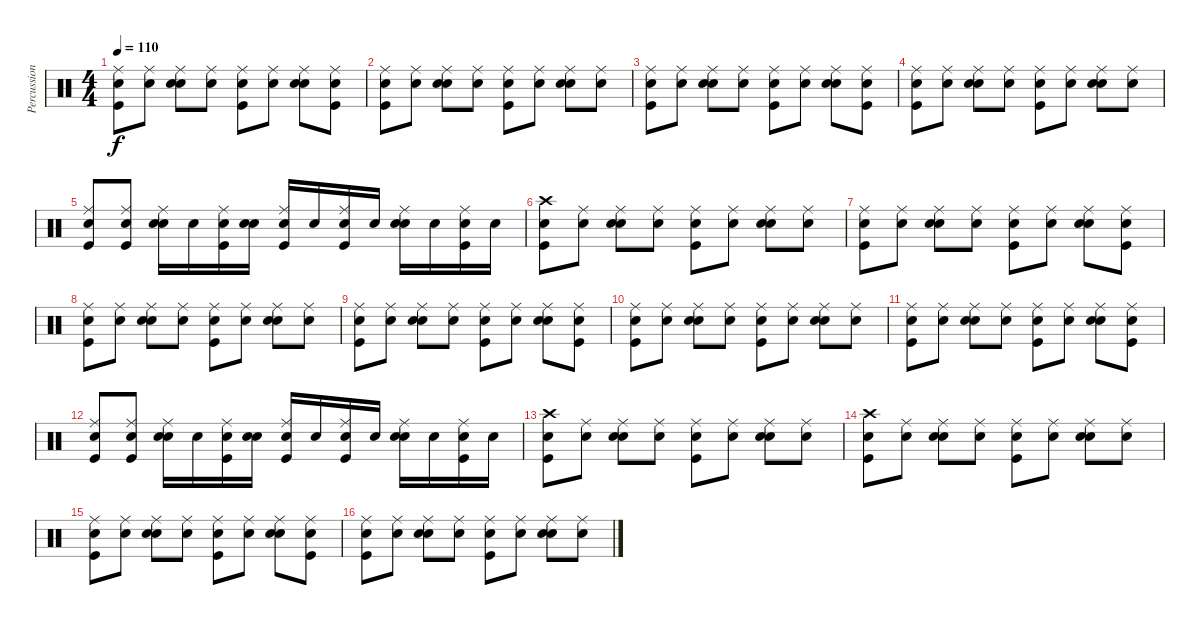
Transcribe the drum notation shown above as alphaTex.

\track ("Percussion" "Percussion") {instrument percussion}
\staff {score}
\articulation defaults
\ts (4 4)
\tempo 110
\clef neutral
\ks c
("Snare (hit)" "Ride (middle)" "Kick (hit)").8{dy f} ("Snare (hit)" "Ride (middle)").8 ("Snare (hit)" "Ride (middle)" "Snare (hit) 2").8 ("Snare (hit)" "Ride (middle)").8 ("Snare (hit)" "Ride (middle)" "Kick (hit)").8 ("Snare (hit)" "Ride (middle)").8 ("Snare (hit)" "Ride (middle)" "Snare (hit) 2").8 ("Snare (hit)" "Ride (middle)" "Kick (hit)").8 |
("Snare (hit)" "Ride (middle)" "Kick (hit)").8 ("Snare (hit)" "Ride (middle)").8 ("Snare (hit)" "Ride (middle)" "Snare (hit) 2").8 ("Snare (hit)" "Ride (middle)").8 ("Snare (hit)" "Ride (middle)" "Kick (hit)").8 ("Snare (hit)" "Ride (middle)").8 ("Snare (hit)" "Ride (middle)" "Snare (hit) 2").8 ("Snare (hit)" "Ride (middle)").8 |
("Snare (hit)" "Ride (middle)" "Kick (hit)").8 ("Snare (hit)" "Ride (middle)").8 ("Snare (hit)" "Ride (middle)" "Snare (hit) 2").8 ("Snare (hit)" "Ride (middle)").8 ("Snare (hit)" "Ride (middle)" "Kick (hit)").8 ("Snare (hit)" "Ride (middle)").8 ("Snare (hit)" "Ride (middle)" "Snare (hit) 2").8 ("Snare (hit)" "Ride (middle)" "Kick (hit)").8 |
("Snare (hit)" "Ride (middle)" "Kick (hit)").8 ("Snare (hit)" "Ride (middle)").8 ("Snare (hit)" "Ride (middle)" "Snare (hit) 2").8 ("Snare (hit)" "Ride (middle)").8 ("Snare (hit)" "Ride (middle)" "Kick (hit)").8 ("Snare (hit)" "Ride (middle)").8 ("Snare (hit)" "Ride (middle)" "Snare (hit) 2").8 ("Snare (hit)" "Ride (middle)").8 |
("Snare (hit)" "Ride (middle)" "Kick (hit)").8 ("Snare (hit)" "Ride (middle)" "Kick (hit)").8 ("Snare (hit)" "Ride (middle)" "Snare (hit) 2").16 "Snare (hit)".16 ("Snare (hit)" "Ride (middle)" "Kick (hit)").16 ("Snare (hit)" "Snare (hit) 2").16 ("Snare (hit)" "Ride (middle)" "Kick (hit)").16 "Snare (hit)".16 ("Snare (hit)" "Ride (middle)" "Kick (hit)").16 "Snare (hit)".16 ("Snare (hit)" "Ride (middle)" "Snare (hit) 2").16 "Snare (hit)".16 ("Snare (hit)" "Ride (middle)" "Kick (hit)").16 "Snare (hit)".16 |
("Snare (hit)" "Crash high (hit)" "Kick (hit)").8 ("Snare (hit)" "Ride (middle)").8 ("Snare (hit)" "Ride (middle)" "Snare (hit) 2").8 ("Snare (hit)" "Ride (middle)").8 ("Snare (hit)" "Ride (middle)" "Kick (hit)").8 ("Snare (hit)" "Ride (middle)").8 ("Snare (hit)" "Ride (middle)" "Snare (hit) 2").8 ("Snare (hit)" "Ride (middle)").8 |
("Snare (hit)" "Ride (middle)" "Kick (hit)").8 ("Snare (hit)" "Ride (middle)").8 ("Snare (hit)" "Ride (middle)" "Snare (hit) 2").8 ("Snare (hit)" "Ride (middle)").8 ("Snare (hit)" "Ride (middle)" "Kick (hit)").8 ("Snare (hit)" "Ride (middle)").8 ("Snare (hit)" "Ride (middle)" "Snare (hit) 2").8 ("Snare (hit)" "Ride (middle)" "Kick (hit)").8 |
("Snare (hit)" "Ride (middle)" "Kick (hit)").8 ("Snare (hit)" "Ride (middle)").8 ("Snare (hit)" "Ride (middle)" "Snare (hit) 2").8 ("Snare (hit)" "Ride (middle)").8 ("Snare (hit)" "Ride (middle)" "Kick (hit)").8 ("Snare (hit)" "Ride (middle)").8 ("Snare (hit)" "Ride (middle)" "Snare (hit) 2").8 ("Snare (hit)" "Ride (middle)").8 |
("Snare (hit)" "Ride (middle)" "Kick (hit)").8 ("Snare (hit)" "Ride (middle)").8 ("Snare (hit)" "Ride (middle)" "Snare (hit) 2").8 ("Snare (hit)" "Ride (middle)").8 ("Snare (hit)" "Ride (middle)" "Kick (hit)").8 ("Snare (hit)" "Ride (middle)").8 ("Snare (hit)" "Ride (middle)" "Snare (hit) 2").8 ("Snare (hit)" "Ride (middle)" "Kick (hit)").8 |
("Snare (hit)" "Ride (middle)" "Kick (hit)").8 ("Snare (hit)" "Ride (middle)").8 ("Snare (hit)" "Ride (middle)" "Snare (hit) 2").8 ("Snare (hit)" "Ride (middle)").8 ("Snare (hit)" "Ride (middle)" "Kick (hit)").8 ("Snare (hit)" "Ride (middle)").8 ("Snare (hit)" "Ride (middle)" "Snare (hit) 2").8 ("Snare (hit)" "Ride (middle)").8 |
("Snare (hit)" "Ride (middle)" "Kick (hit)").8 ("Snare (hit)" "Ride (middle)").8 ("Snare (hit)" "Ride (middle)" "Snare (hit) 2").8 ("Snare (hit)" "Ride (middle)").8 ("Snare (hit)" "Ride (middle)" "Kick (hit)").8 ("Snare (hit)" "Ride (middle)").8 ("Snare (hit)" "Ride (middle)" "Snare (hit) 2").8 ("Snare (hit)" "Ride (middle)" "Kick (hit)").8 |
("Snare (hit)" "Ride (middle)" "Kick (hit)").8 ("Snare (hit)" "Ride (middle)" "Kick (hit)").8 ("Snare (hit)" "Ride (middle)" "Snare (hit) 2").16 "Snare (hit)".16 ("Snare (hit)" "Ride (middle)" "Kick (hit)").16 ("Snare (hit)" "Snare (hit) 2").16 ("Snare (hit)" "Ride (middle)" "Kick (hit)").16 "Snare (hit)".16 ("Snare (hit)" "Ride (middle)" "Kick (hit)").16 "Snare (hit)".16 ("Snare (hit)" "Ride (middle)" "Snare (hit) 2").16 "Snare (hit)".16 ("Snare (hit)" "Ride (middle)" "Kick (hit)").16 "Snare (hit)".16 |
("Snare (hit)" "Crash high (hit)" "Kick (hit)").8 ("Snare (hit)" "Ride (middle)").8 ("Snare (hit)" "Ride (middle)" "Snare (hit) 2").8 ("Snare (hit)" "Ride (middle)").8 ("Snare (hit)" "Ride (middle)" "Kick (hit)").8 ("Snare (hit)" "Ride (middle)").8 ("Snare (hit)" "Ride (middle)" "Snare (hit) 2").8 ("Snare (hit)" "Ride (middle)").8 |
("Snare (hit)" "Crash high (hit)" "Kick (hit)").8 ("Snare (hit)" "Ride (middle)").8 ("Snare (hit)" "Ride (middle)" "Snare (hit) 2").8 ("Snare (hit)" "Ride (middle)").8 ("Snare (hit)" "Ride (middle)" "Kick (hit)").8 ("Snare (hit)" "Ride (middle)").8 ("Snare (hit)" "Ride (middle)" "Snare (hit) 2").8 ("Snare (hit)" "Ride (middle)").8 |
("Snare (hit)" "Ride (middle)" "Kick (hit)").8 ("Snare (hit)" "Ride (middle)").8 ("Snare (hit)" "Ride (middle)" "Snare (hit) 2").8 ("Snare (hit)" "Ride (middle)").8 ("Snare (hit)" "Ride (middle)" "Kick (hit)").8 ("Snare (hit)" "Ride (middle)").8 ("Snare (hit)" "Ride (middle)" "Snare (hit) 2").8 ("Snare (hit)" "Ride (middle)" "Kick (hit)").8 |
("Snare (hit)" "Ride (middle)" "Kick (hit)").8 ("Snare (hit)" "Ride (middle)").8 ("Snare (hit)" "Ride (middle)" "Snare (hit) 2").8 ("Snare (hit)" "Ride (middle)").8 ("Snare (hit)" "Ride (middle)" "Kick (hit)").8 ("Snare (hit)" "Ride (middle)").8 ("Snare (hit)" "Ride (middle)" "Snare (hit) 2").8 ("Snare (hit)" "Ride (middle)").8
